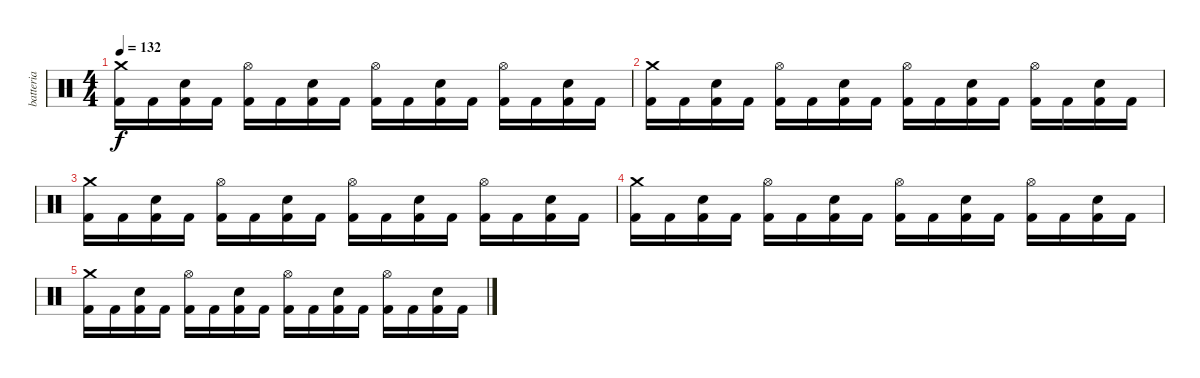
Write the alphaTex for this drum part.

\track ("batteria" "batteria") {instrument percussion}
\staff {score}
\articulation defaults
\ts (4 4)
\tempo 132
\clef neutral
\ks c
("Kick (hit) 2" "Crash medium (hit)").16{dy f} "Kick (hit) 2".16 ("Kick (hit) 2" "Snare (hit) 2").16 "Kick (hit) 2".16 ("Kick (hit) 2" "Hi-Hat (open)").16 "Kick (hit) 2".16 ("Kick (hit) 2" "Snare (hit) 2").16 "Kick (hit) 2".16 ("Kick (hit) 2" "Hi-Hat (open)").16 "Kick (hit) 2".16 ("Kick (hit) 2" "Snare (hit) 2").16 "Kick (hit) 2".16 ("Kick (hit) 2" "Hi-Hat (open)").16 "Kick (hit) 2".16 ("Kick (hit) 2" "Snare (hit) 2").16 "Kick (hit) 2".16 |
("Kick (hit) 2" "Crash medium (hit)").16 "Kick (hit) 2".16 ("Kick (hit) 2" "Snare (hit) 2").16 "Kick (hit) 2".16 ("Kick (hit) 2" "Hi-Hat (open)").16 "Kick (hit) 2".16 ("Kick (hit) 2" "Snare (hit) 2").16 "Kick (hit) 2".16 ("Kick (hit) 2" "Hi-Hat (open)").16 "Kick (hit) 2".16 ("Kick (hit) 2" "Snare (hit) 2").16 "Kick (hit) 2".16 ("Kick (hit) 2" "Hi-Hat (open)").16 "Kick (hit) 2".16 ("Kick (hit) 2" "Snare (hit) 2").16 "Kick (hit) 2".16 |
("Kick (hit) 2" "Crash medium (hit)").16 "Kick (hit) 2".16 ("Kick (hit) 2" "Snare (hit) 2").16 "Kick (hit) 2".16 ("Kick (hit) 2" "Hi-Hat (open)").16 "Kick (hit) 2".16 ("Kick (hit) 2" "Snare (hit) 2").16 "Kick (hit) 2".16 ("Kick (hit) 2" "Hi-Hat (open)").16 "Kick (hit) 2".16 ("Kick (hit) 2" "Snare (hit) 2").16 "Kick (hit) 2".16 ("Kick (hit) 2" "Hi-Hat (open)").16 "Kick (hit) 2".16 ("Kick (hit) 2" "Snare (hit) 2").16 "Kick (hit) 2".16 |
("Kick (hit) 2" "Crash medium (hit)").16{volume 0} "Kick (hit) 2".16 ("Kick (hit) 2" "Snare (hit) 2").16 "Kick (hit) 2".16 ("Kick (hit) 2" "Hi-Hat (open)").16 "Kick (hit) 2".16 ("Kick (hit) 2" "Snare (hit) 2").16 "Kick (hit) 2".16 ("Kick (hit) 2" "Hi-Hat (open)").16 "Kick (hit) 2".16 ("Kick (hit) 2" "Snare (hit) 2").16 "Kick (hit) 2".16 ("Kick (hit) 2" "Hi-Hat (open)").16 "Kick (hit) 2".16 ("Kick (hit) 2" "Snare (hit) 2").16 "Kick (hit) 2".16 |
("Kick (hit) 2" "Crash medium (hit)").16 "Kick (hit) 2".16 ("Kick (hit) 2" "Snare (hit) 2").16 "Kick (hit) 2".16 ("Kick (hit) 2" "Hi-Hat (open)").16 "Kick (hit) 2".16 ("Kick (hit) 2" "Snare (hit) 2").16 "Kick (hit) 2".16 ("Kick (hit) 2" "Hi-Hat (open)").16 "Kick (hit) 2".16 ("Kick (hit) 2" "Snare (hit) 2").16 "Kick (hit) 2".16 ("Kick (hit) 2" "Hi-Hat (open)").16 "Kick (hit) 2".16 ("Kick (hit) 2" "Snare (hit) 2").16 "Kick (hit) 2".16
